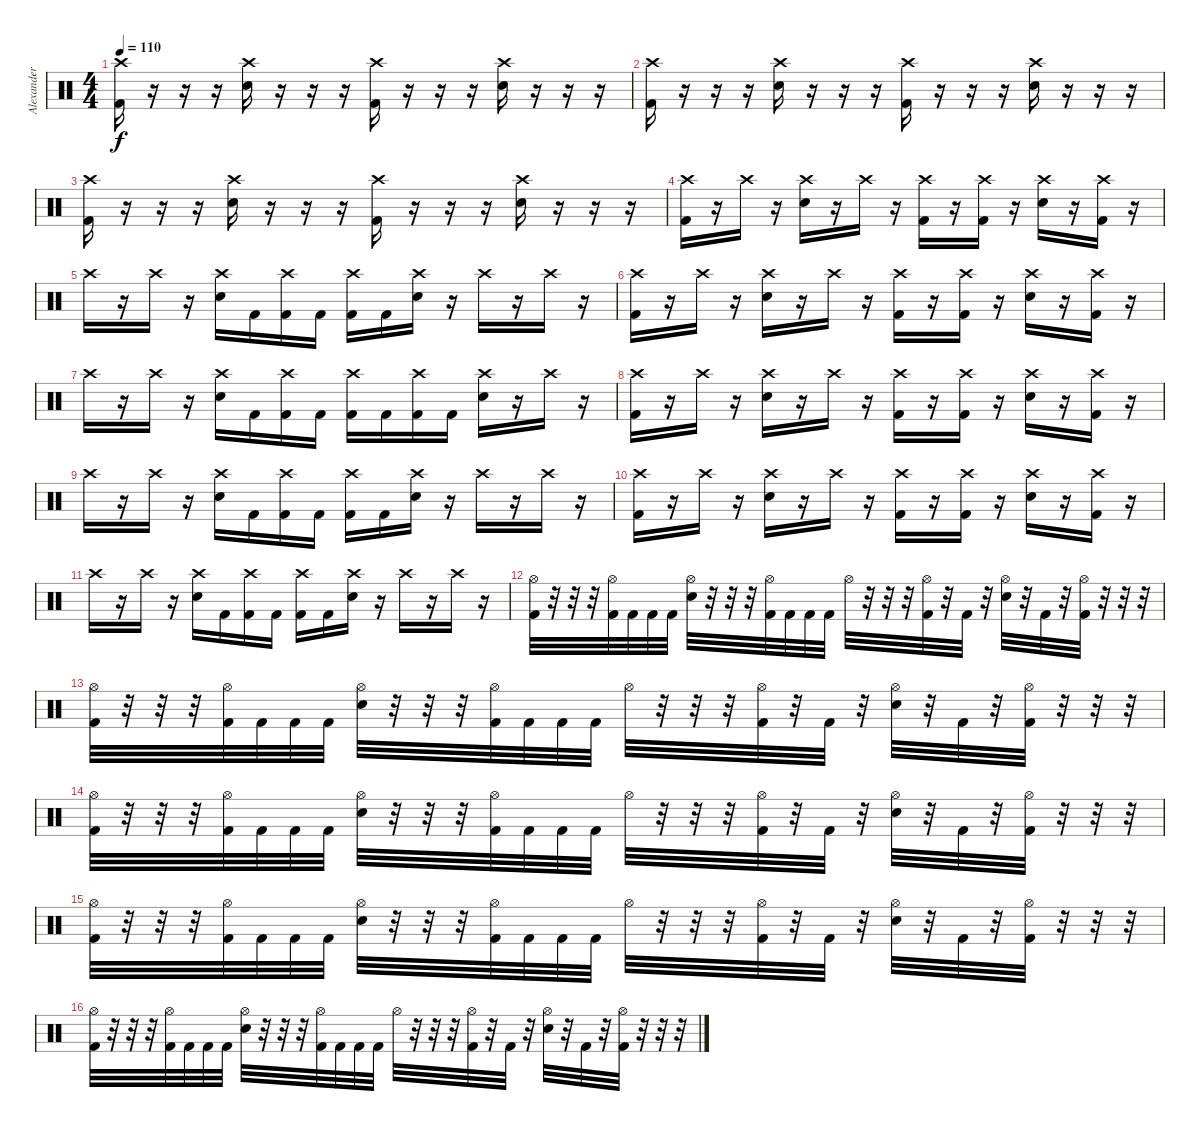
\track ("Alexander C." "Alexander ") {instrument percussion}
\staff {score}
\articulation defaults
\ts (4 4)
\tempo 110
\clef neutral
\ks c
("Crash high (hit)" "Kick (hit) 2").16{dy f} r.16 r.16 r.16 ("Crash high (hit)" "Snare (hit) 2").16 r.16 r.16 r.16 ("Crash high (hit)" "Kick (hit) 2").16 r.16 r.16 r.16 ("Crash high (hit)" "Snare (hit) 2").16 r.16 r.16 r.16 |
("Crash high (hit)" "Kick (hit) 2").16 r.16 r.16 r.16 ("Crash high (hit)" "Snare (hit) 2").16 r.16 r.16 r.16 ("Crash high (hit)" "Kick (hit) 2").16 r.16 r.16 r.16 ("Crash high (hit)" "Snare (hit) 2").16 r.16 r.16 r.16 |
("Crash high (hit)" "Kick (hit) 2").16 r.16 r.16 r.16 ("Crash high (hit)" "Snare (hit) 2").16 r.16 r.16 r.16 ("Crash high (hit)" "Kick (hit) 2").16 r.16 r.16 r.16 ("Crash high (hit)" "Snare (hit) 2").16 r.16 r.16 r.16 |
("Crash high (hit)" "Kick (hit) 2").16 r.16 "Crash high (hit)".16 r.16 ("Crash high (hit)" "Snare (hit) 2").16 r.16 "Crash high (hit)".16 r.16 ("Crash high (hit)" "Kick (hit) 2").16 r.16 ("Crash high (hit)" "Kick (hit) 2").16 r.16 ("Crash high (hit)" "Snare (hit) 2").16 r.16 ("Crash high (hit)" "Kick (hit) 2").16 r.16 |
"Crash high (hit)".16 r.16 "Crash high (hit)".16 r.16 ("Crash high (hit)" "Snare (hit) 2").16 "Kick (hit) 2".16 ("Crash high (hit)" "Kick (hit) 2").16 "Kick (hit) 2".16 ("Crash high (hit)" "Kick (hit) 2").16 "Kick (hit) 2".16 ("Crash high (hit)" "Snare (hit) 2").16 r.16 "Crash high (hit)".16 r.16 "Crash high (hit)".16 r.16 |
("Crash high (hit)" "Kick (hit) 2").16 r.16 "Crash high (hit)".16 r.16 ("Crash high (hit)" "Snare (hit) 2").16 r.16 "Crash high (hit)".16 r.16 ("Crash high (hit)" "Kick (hit) 2").16 r.16 ("Crash high (hit)" "Kick (hit) 2").16 r.16 ("Crash high (hit)" "Snare (hit) 2").16 r.16 ("Crash high (hit)" "Kick (hit) 2").16 r.16 |
"Crash high (hit)".16 r.16 "Crash high (hit)".16 r.16 ("Crash high (hit)" "Snare (hit) 2").16 "Kick (hit) 2".16 ("Crash high (hit)" "Kick (hit) 2").16 "Kick (hit) 2".16 ("Crash high (hit)" "Kick (hit) 2").16 "Kick (hit) 2".16 ("Crash high (hit)" "Kick (hit) 2").16 "Kick (hit) 2".16 ("Crash high (hit)" "Snare (hit) 2").16 r.16 "Crash high (hit)".16 r.16 |
("Crash high (hit)" "Kick (hit) 2").16 r.16 "Crash high (hit)".16 r.16 ("Crash high (hit)" "Snare (hit) 2").16 r.16 "Crash high (hit)".16 r.16 ("Crash high (hit)" "Kick (hit) 2").16 r.16 ("Crash high (hit)" "Kick (hit) 2").16 r.16 ("Crash high (hit)" "Snare (hit) 2").16 r.16 ("Crash high (hit)" "Kick (hit) 2").16 r.16 |
"Crash high (hit)".16 r.16 "Crash high (hit)".16 r.16 ("Crash high (hit)" "Snare (hit) 2").16 "Kick (hit) 2".16 ("Crash high (hit)" "Kick (hit) 2").16 "Kick (hit) 2".16 ("Crash high (hit)" "Kick (hit) 2").16 "Kick (hit) 2".16 ("Crash high (hit)" "Snare (hit) 2").16 r.16 "Crash high (hit)".16 r.16 "Crash high (hit)".16 r.16 |
("Crash high (hit)" "Kick (hit) 2").16 r.16 "Crash high (hit)".16 r.16 ("Crash high (hit)" "Snare (hit) 2").16 r.16 "Crash high (hit)".16 r.16 ("Crash high (hit)" "Kick (hit) 2").16 r.16 ("Crash high (hit)" "Kick (hit) 2").16 r.16 ("Crash high (hit)" "Snare (hit) 2").16 r.16 ("Crash high (hit)" "Kick (hit) 2").16 r.16 |
"Crash high (hit)".16 r.16 "Crash high (hit)".16 r.16 ("Crash high (hit)" "Snare (hit) 2").16 "Kick (hit) 2".16 ("Crash high (hit)" "Kick (hit) 2").16 "Kick (hit) 2".16 ("Crash high (hit)" "Kick (hit) 2").16 "Kick (hit) 2".16 ("Crash high (hit)" "Snare (hit) 2").16 r.16 "Crash high (hit)".16 r.16 "Crash high (hit)".16 r.16 |
("Hi-Hat (open)" "Kick (hit) 2").32 r.32 r.32 r.32 ("Hi-Hat (open)" "Kick (hit) 2").32 "Kick (hit) 2".32 "Kick (hit) 2".32 "Kick (hit) 2".32 ("Hi-Hat (open)" "Snare (hit) 2").32 r.32 r.32 r.32 ("Hi-Hat (open)" "Kick (hit) 2").32 "Kick (hit) 2".32 "Kick (hit) 2".32 "Kick (hit) 2".32 "Hi-Hat (open)".32 r.32 r.32 r.32 ("Hi-Hat (open)" "Kick (hit) 2").32 r.32 "Kick (hit) 2".32 r.32 ("Hi-Hat (open)" "Snare (hit) 2").32 r.32 "Kick (hit) 2".32 r.32 ("Hi-Hat (open)" "Kick (hit) 2").32 r.32 r.32 r.32 |
("Hi-Hat (open)" "Kick (hit) 2").32 r.32 r.32 r.32 ("Hi-Hat (open)" "Kick (hit) 2").32 "Kick (hit) 2".32 "Kick (hit) 2".32 "Kick (hit) 2".32 ("Hi-Hat (open)" "Snare (hit) 2").32 r.32 r.32 r.32 ("Hi-Hat (open)" "Kick (hit) 2").32 "Kick (hit) 2".32 "Kick (hit) 2".32 "Kick (hit) 2".32 "Hi-Hat (open)".32 r.32 r.32 r.32 ("Hi-Hat (open)" "Kick (hit) 2").32 r.32 "Kick (hit) 2".32 r.32 ("Hi-Hat (open)" "Snare (hit) 2").32 r.32 "Kick (hit) 2".32 r.32 ("Hi-Hat (open)" "Kick (hit) 2").32 r.32 r.32 r.32 |
("Hi-Hat (open)" "Kick (hit) 2").32 r.32 r.32 r.32 ("Hi-Hat (open)" "Kick (hit) 2").32 "Kick (hit) 2".32 "Kick (hit) 2".32 "Kick (hit) 2".32 ("Hi-Hat (open)" "Snare (hit) 2").32 r.32 r.32 r.32 ("Hi-Hat (open)" "Kick (hit) 2").32 "Kick (hit) 2".32 "Kick (hit) 2".32 "Kick (hit) 2".32 "Hi-Hat (open)".32 r.32 r.32 r.32 ("Hi-Hat (open)" "Kick (hit) 2").32 r.32 "Kick (hit) 2".32 r.32 ("Hi-Hat (open)" "Snare (hit) 2").32 r.32 "Kick (hit) 2".32 r.32 ("Hi-Hat (open)" "Kick (hit) 2").32 r.32 r.32 r.32 |
("Hi-Hat (open)" "Kick (hit) 2").32 r.32 r.32 r.32 ("Hi-Hat (open)" "Kick (hit) 2").32 "Kick (hit) 2".32 "Kick (hit) 2".32 "Kick (hit) 2".32 ("Hi-Hat (open)" "Snare (hit) 2").32 r.32 r.32 r.32 ("Hi-Hat (open)" "Kick (hit) 2").32 "Kick (hit) 2".32 "Kick (hit) 2".32 "Kick (hit) 2".32 "Hi-Hat (open)".32 r.32 r.32 r.32 ("Hi-Hat (open)" "Kick (hit) 2").32 r.32 "Kick (hit) 2".32 r.32 ("Hi-Hat (open)" "Snare (hit) 2").32 r.32 "Kick (hit) 2".32 r.32 ("Hi-Hat (open)" "Kick (hit) 2").32 r.32 r.32 r.32 |
("Hi-Hat (open)" "Kick (hit) 2").32 r.32 r.32 r.32 ("Hi-Hat (open)" "Kick (hit) 2").32 "Kick (hit) 2".32 "Kick (hit) 2".32 "Kick (hit) 2".32 ("Hi-Hat (open)" "Snare (hit) 2").32 r.32 r.32 r.32 ("Hi-Hat (open)" "Kick (hit) 2").32 "Kick (hit) 2".32 "Kick (hit) 2".32 "Kick (hit) 2".32 "Hi-Hat (open)".32 r.32 r.32 r.32 ("Hi-Hat (open)" "Kick (hit) 2").32 r.32 "Kick (hit) 2".32 r.32 ("Hi-Hat (open)" "Snare (hit) 2").32 r.32 "Kick (hit) 2".32 r.32 ("Hi-Hat (open)" "Kick (hit) 2").32 r.32 r.32 r.32
